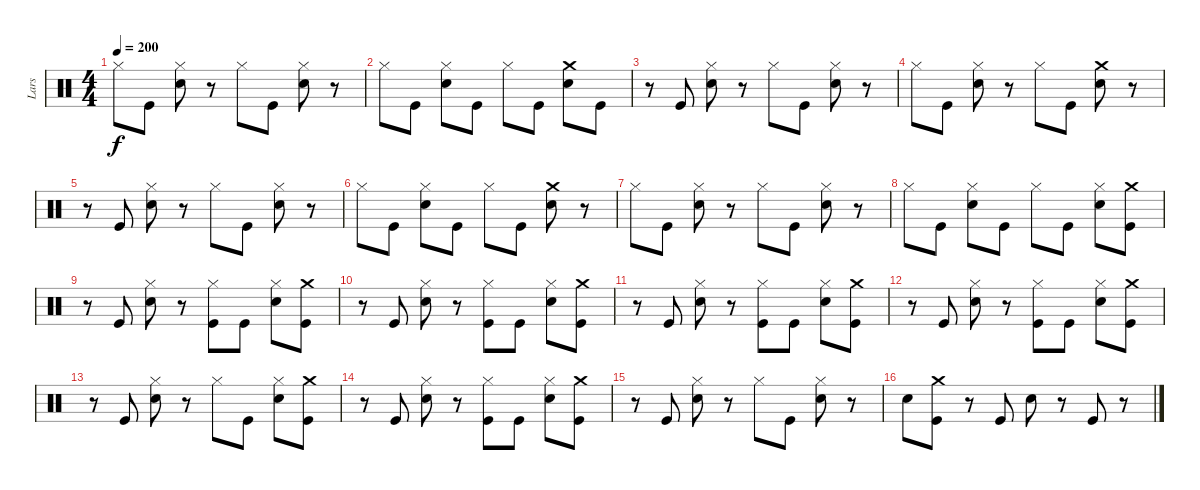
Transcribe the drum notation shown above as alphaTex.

\track ("Lars" "Lars") {instrument percussion}
\staff {score}
\articulation defaults
\ts (4 4)
\tempo 200
\clef neutral
\ks c "Hi-Hat (closed)".8{dy f} "Kick (hit)".8
("Hi-Hat (closed)" "Snare (hit) 2").8 r.8 "Hi-Hat (closed)".8 "Kick (hit)".8 ("Hi-Hat (closed)" "Snare (hit) 2").8 r.8 |
"Hi-Hat (closed)".8 "Kick (hit)".8 ("Hi-Hat (closed)" "Snare (hit) 2").8 "Kick (hit)".8 "Hi-Hat (closed)".8 "Kick (hit)".8 ("Crash medium (hit)" "Snare (hit) 2").8 "Kick (hit)".8 |
r.8 "Kick (hit)".8 ("Hi-Hat (closed)" "Snare (hit) 2").8 r.8 "Hi-Hat (closed)".8 "Kick (hit)".8 ("Hi-Hat (closed)" "Snare (hit) 2").8 r.8 |
"Hi-Hat (closed)".8 "Kick (hit)".8 ("Hi-Hat (closed)" "Snare (hit) 2").8 r.8 "Hi-Hat (closed)".8 "Kick (hit)".8 ("Crash medium (hit)" "Snare (hit) 2").8 r.8 |
r.8 "Kick (hit)".8 ("Hi-Hat (closed)" "Snare (hit) 2").8 r.8 "Hi-Hat (closed)".8 "Kick (hit)".8 ("Hi-Hat (closed)" "Snare (hit) 2").8 r.8 |
"Hi-Hat (closed)".8 "Kick (hit)".8 ("Hi-Hat (closed)" "Snare (hit) 2").8 "Kick (hit)".8 "Hi-Hat (closed)".8 "Kick (hit)".8 ("Crash medium (hit)" "Snare (hit) 2").8 r.8 |
"Hi-Hat (closed)".8 "Kick (hit)".8 ("Hi-Hat (closed)" "Snare (hit) 2").8 r.8 "Hi-Hat (closed)".8 "Kick (hit)".8 ("Hi-Hat (closed)" "Snare (hit) 2").8 r.8 |
"Hi-Hat (closed)".8 "Kick (hit)".8 ("Hi-Hat (closed)" "Snare (hit) 2").8 "Kick (hit)".8 "Hi-Hat (closed)".8 "Kick (hit)".8 ("Hi-Hat (closed)" "Snare (hit) 2").8 ("Crash medium (hit)" "Kick (hit)").8 |
r.8 "Kick (hit)".8 ("Hi-Hat (closed)" "Snare (hit) 2").8 r.8 ("Kick (hit)" "Hi-Hat (closed)").8 "Kick (hit)".8 ("Hi-Hat (closed)" "Snare (hit) 2").8 ("Crash medium (hit)" "Kick (hit)").8 |
r.8 "Kick (hit)".8 ("Hi-Hat (closed)" "Snare (hit) 2").8 r.8 ("Kick (hit)" "Hi-Hat (closed)").8 "Kick (hit)".8 ("Hi-Hat (closed)" "Snare (hit) 2").8 ("Crash medium (hit)" "Kick (hit)").8 |
r.8 "Kick (hit)".8 ("Hi-Hat (closed)" "Snare (hit) 2").8 r.8 ("Kick (hit)" "Hi-Hat (closed)").8 "Kick (hit)".8 ("Hi-Hat (closed)" "Snare (hit) 2").8 ("Crash medium (hit)" "Kick (hit)").8 |
r.8 "Kick (hit)".8 ("Hi-Hat (closed)" "Snare (hit) 2").8 r.8 ("Kick (hit)" "Hi-Hat (closed)").8 "Kick (hit)".8 ("Hi-Hat (closed)" "Snare (hit) 2").8 ("Crash medium (hit)" "Kick (hit)").8 |
r.8 "Kick (hit)".8 ("Hi-Hat (closed)" "Snare (hit) 2").8 r.8 "Hi-Hat (closed)".8 "Kick (hit)".8 ("Hi-Hat (closed)" "Snare (hit) 2").8 ("Crash medium (hit)" "Kick (hit)").8 |
r.8 "Kick (hit)".8 ("Hi-Hat (closed)" "Snare (hit) 2").8 r.8 ("Kick (hit)" "Hi-Hat (closed)").8 "Kick (hit)".8 ("Hi-Hat (closed)" "Snare (hit) 2").8 ("Crash medium (hit)" "Kick (hit)").8 |
r.8 "Kick (hit)".8 ("Hi-Hat (closed)" "Snare (hit) 2").8 r.8 "Hi-Hat (closed)".8 "Kick (hit)".8 ("Hi-Hat (closed)" "Snare (hit) 2").8 r.8 |
"Snare (hit) 2".8 ("Crash medium (hit)" "Kick (hit)").8 r.8 "Kick (hit)".8 "Snare (hit) 2".8 r.8 "Kick (hit)".8 r.8
